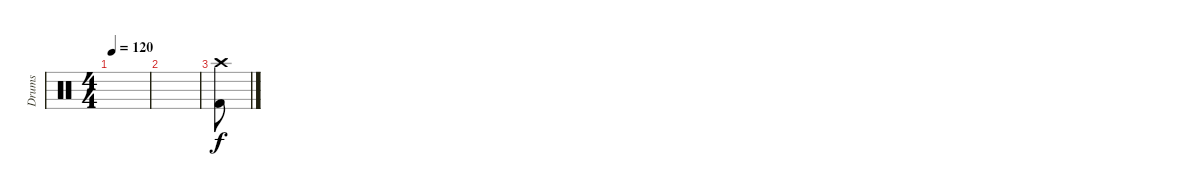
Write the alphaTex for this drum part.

\track ("Drums" "Drums") {instrument percussion}
\staff {score}
\articulation defaults
\ts (4 4)
\tempo 120
\clef neutral
\ks c
|
|
("Crash high (hit)" "Kick (hit) 2").8
